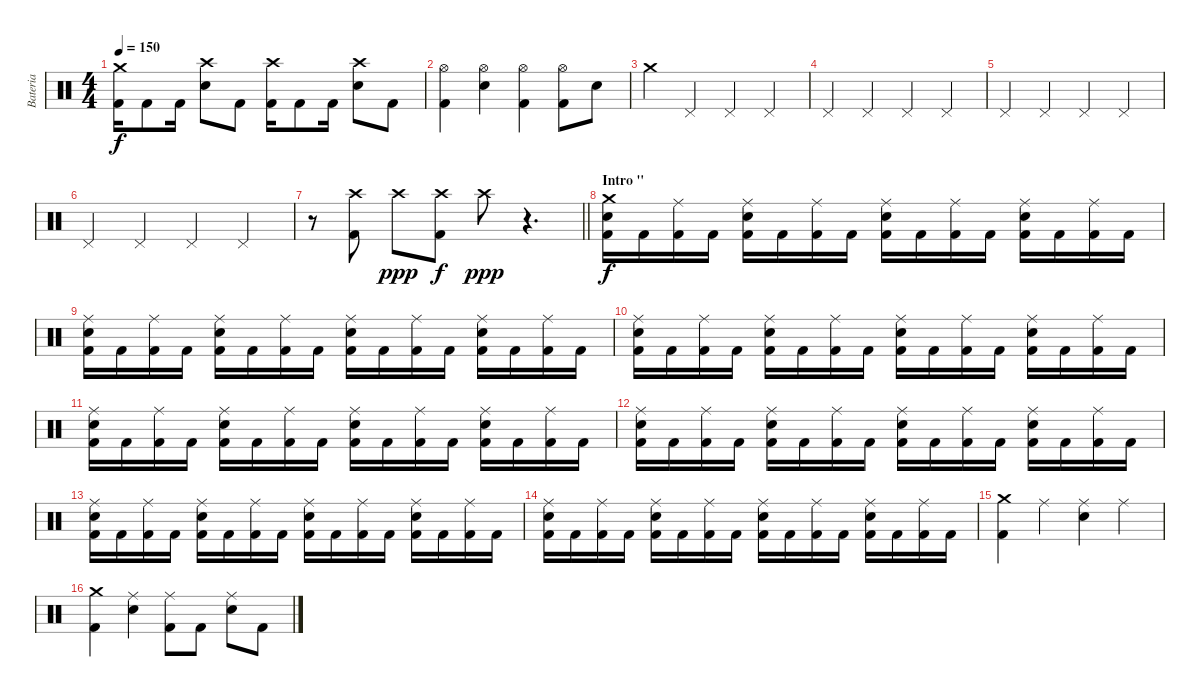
\track ("Bateria" "Bateria") {instrument percussion}
\staff {score}
\articulation defaults
\ts (4 4)
\tempo 150
\clef neutral
\ks c
("Crash medium (hit)" "Kick (hit) 2").16{dy f} "Kick (hit) 2".8 "Kick (hit) 2".16 ("Crash high (hit)" "Snare (hit) 2").8 "Kick (hit) 2".8 ("Crash high (hit)" "Kick (hit) 2").16 "Kick (hit) 2".8 "Kick (hit) 2".16 ("Crash high (hit)" "Snare (hit) 2").8 "Kick (hit) 2".8 |
("Hi-Hat (open)" "Kick (hit) 2").4 ("Hi-Hat (open)" "Snare (hit) 2").4 ("Hi-Hat (open)" "Kick (hit) 2").4 ("Hi-Hat (open)" "Kick (hit) 2").8 "Snare (hit) 2".8 |
"Crash medium (hit)".4 "Pedal Hi-Hat (hit)".4 "Pedal Hi-Hat (hit)".4 "Pedal Hi-Hat (hit)".4 |
"Pedal Hi-Hat (hit)".4 "Pedal Hi-Hat (hit)".4 "Pedal Hi-Hat (hit)".4 "Pedal Hi-Hat (hit)".4 |
"Pedal Hi-Hat (hit)".4 "Pedal Hi-Hat (hit)".4 "Pedal Hi-Hat (hit)".4 "Pedal Hi-Hat (hit)".4 |
"Pedal Hi-Hat (hit)".4 "Pedal Hi-Hat (hit)".4 "Pedal Hi-Hat (hit)".4 "Pedal Hi-Hat (hit)".4 |
\barLineRight lightlight
r.8 ("Crash high (hit)" "Kick (hit) 2").8 "Crash high (hit)".8{dy ppp} ("Crash high (hit)" "Kick (hit) 2").8{dy f} "Crash high (hit)".8{dy ppp} r.4{d} |
\section ("" "Intro ''")
("Crash medium (hit)" "Snare (hit) 2" "Kick (hit) 2").16{dy f} "Kick (hit) 2".16 ("Ride (middle)" "Kick (hit) 2").16 "Kick (hit) 2".16 ("Ride (middle)" "Snare (hit) 2" "Kick (hit) 2").16 "Kick (hit) 2".16 ("Ride (middle)" "Kick (hit) 2").16 "Kick (hit) 2".16 ("Ride (middle)" "Snare (hit) 2" "Kick (hit) 2").16 "Kick (hit) 2".16 ("Ride (middle)" "Kick (hit) 2").16 "Kick (hit) 2".16 ("Ride (middle)" "Snare (hit) 2" "Kick (hit) 2").16 "Kick (hit) 2".16 ("Ride (middle)" "Kick (hit) 2").16 "Kick (hit) 2".16 |
("Ride (middle)" "Snare (hit) 2" "Kick (hit) 2").16 "Kick (hit) 2".16 ("Ride (middle)" "Kick (hit) 2").16 "Kick (hit) 2".16 ("Ride (middle)" "Snare (hit) 2" "Kick (hit) 2").16 "Kick (hit) 2".16 ("Ride (middle)" "Kick (hit) 2").16 "Kick (hit) 2".16 ("Ride (middle)" "Snare (hit) 2" "Kick (hit) 2").16 "Kick (hit) 2".16 ("Ride (middle)" "Kick (hit) 2").16 "Kick (hit) 2".16 ("Ride (middle)" "Snare (hit) 2" "Kick (hit) 2").16 "Kick (hit) 2".16 ("Ride (middle)" "Kick (hit) 2").16 "Kick (hit) 2".16 |
("Ride (middle)" "Snare (hit) 2" "Kick (hit) 2").16 "Kick (hit) 2".16 ("Ride (middle)" "Kick (hit) 2").16 "Kick (hit) 2".16 ("Ride (middle)" "Snare (hit) 2" "Kick (hit) 2").16 "Kick (hit) 2".16 ("Ride (middle)" "Kick (hit) 2").16 "Kick (hit) 2".16 ("Ride (middle)" "Snare (hit) 2" "Kick (hit) 2").16 "Kick (hit) 2".16 ("Ride (middle)" "Kick (hit) 2").16 "Kick (hit) 2".16 ("Ride (middle)" "Snare (hit) 2" "Kick (hit) 2").16 "Kick (hit) 2".16 ("Ride (middle)" "Kick (hit) 2").16 "Kick (hit) 2".16 |
("Ride (middle)" "Snare (hit) 2" "Kick (hit) 2").16 "Kick (hit) 2".16 ("Ride (middle)" "Kick (hit) 2").16 "Kick (hit) 2".16 ("Ride (middle)" "Snare (hit) 2" "Kick (hit) 2").16 "Kick (hit) 2".16 ("Ride (middle)" "Kick (hit) 2").16 "Kick (hit) 2".16 ("Ride (middle)" "Snare (hit) 2" "Kick (hit) 2").16 "Kick (hit) 2".16 ("Ride (middle)" "Kick (hit) 2").16 "Kick (hit) 2".16 ("Ride (middle)" "Snare (hit) 2" "Kick (hit) 2").16 "Kick (hit) 2".16 ("Ride (middle)" "Kick (hit) 2").16 "Kick (hit) 2".16 |
("Ride (middle)" "Snare (hit) 2" "Kick (hit) 2").16 "Kick (hit) 2".16 ("Ride (middle)" "Kick (hit) 2").16 "Kick (hit) 2".16 ("Ride (middle)" "Snare (hit) 2" "Kick (hit) 2").16 "Kick (hit) 2".16 ("Ride (middle)" "Kick (hit) 2").16 "Kick (hit) 2".16 ("Ride (middle)" "Snare (hit) 2" "Kick (hit) 2").16 "Kick (hit) 2".16 ("Ride (middle)" "Kick (hit) 2").16 "Kick (hit) 2".16 ("Ride (middle)" "Snare (hit) 2" "Kick (hit) 2").16 "Kick (hit) 2".16 ("Ride (middle)" "Kick (hit) 2").16 "Kick (hit) 2".16 |
("Ride (middle)" "Snare (hit) 2" "Kick (hit) 2").16 "Kick (hit) 2".16 ("Ride (middle)" "Kick (hit) 2").16 "Kick (hit) 2".16 ("Ride (middle)" "Snare (hit) 2" "Kick (hit) 2").16 "Kick (hit) 2".16 ("Ride (middle)" "Kick (hit) 2").16 "Kick (hit) 2".16 ("Ride (middle)" "Snare (hit) 2" "Kick (hit) 2").16 "Kick (hit) 2".16 ("Ride (middle)" "Kick (hit) 2").16 "Kick (hit) 2".16 ("Ride (middle)" "Snare (hit) 2" "Kick (hit) 2").16 "Kick (hit) 2".16 ("Ride (middle)" "Kick (hit) 2").16 "Kick (hit) 2".16 |
("Ride (middle)" "Snare (hit) 2" "Kick (hit) 2").16 "Kick (hit) 2".16 ("Ride (middle)" "Kick (hit) 2").16 "Kick (hit) 2".16 ("Ride (middle)" "Snare (hit) 2" "Kick (hit) 2").16 "Kick (hit) 2".16 ("Ride (middle)" "Kick (hit) 2").16 "Kick (hit) 2".16 ("Ride (middle)" "Snare (hit) 2" "Kick (hit) 2").16 "Kick (hit) 2".16 ("Ride (middle)" "Kick (hit) 2").16 "Kick (hit) 2".16 ("Ride (middle)" "Snare (hit) 2" "Kick (hit) 2").16 "Kick (hit) 2".16 ("Ride (middle)" "Kick (hit) 2").16 "Kick (hit) 2".16 |
("Crash medium (hit)" "Kick (hit) 2").4 "Ride (middle)".4 ("Ride (middle)" "Snare (hit) 2").4 "Ride (middle)".4 |
("Crash medium (hit)" "Kick (hit) 2").4 ("Ride (middle)" "Snare (hit) 2").4 ("Ride (middle)" "Kick (hit) 2").8 "Kick (hit) 2".8 ("Ride (middle)" "Snare (hit) 2").8 "Kick (hit) 2".8
